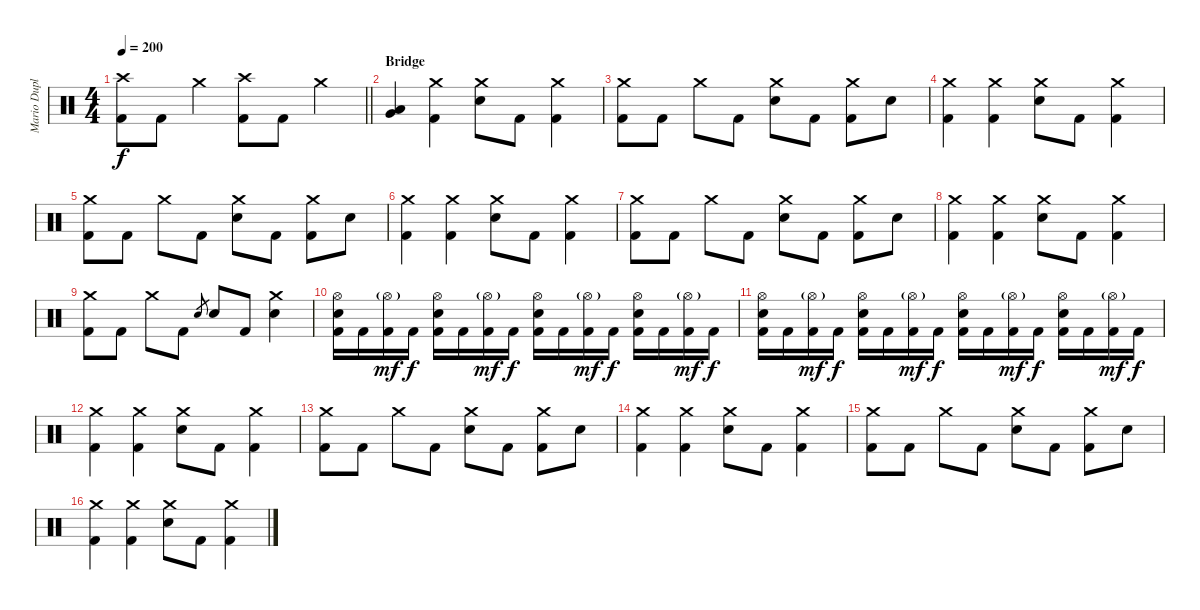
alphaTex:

\track ("Mario Duplantier" "Mario Dupl") {instrument percussion}
\staff {score}
\articulation defaults
\ts (4 4)
\tempo 200
\clef neutral
\barLineRight lightlight
\ks c
("Crash high (hit)" "Kick (hit) 2").8{dy f} "Kick (hit) 2".8 "Crash medium (hit)".4 ("Crash high (hit)" "Kick (hit) 2").8 "Kick (hit) 2".8 "Crash medium (hit)".4 |
\section ("" "Bridge")
("Low Floor Tom (hit)" "Very Low Tom (hit)").4 ("Crash medium (hit)" "Kick (hit) 2").4 ("Crash medium (hit)" "Electric Snare (hit)").8 "Kick (hit) 2".8 ("Crash medium (hit)" "Kick (hit) 2").4 |
("Crash medium (hit)" "Kick (hit) 2").8 "Kick (hit) 2".8 "Crash medium (hit)".8 "Kick (hit) 2".8 ("Crash medium (hit)" "Electric Snare (hit)").8 "Kick (hit) 2".8 ("Crash medium (hit)" "Kick (hit) 2").8 "Electric Snare (hit)".8 |
("Crash medium (hit)" "Kick (hit) 2").4 ("Crash medium (hit)" "Kick (hit) 2").4 ("Crash medium (hit)" "Electric Snare (hit)").8 "Kick (hit) 2".8 ("Crash medium (hit)" "Kick (hit) 2").4 |
("Crash medium (hit)" "Kick (hit) 2").8 "Kick (hit) 2".8 "Crash medium (hit)".8 "Kick (hit) 2".8 ("Crash medium (hit)" "Electric Snare (hit)").8 "Kick (hit) 2".8 ("Crash medium (hit)" "Kick (hit) 2").8 "Electric Snare (hit)".8 |
("Crash medium (hit)" "Kick (hit) 2").4 ("Crash medium (hit)" "Kick (hit) 2").4 ("Crash medium (hit)" "Electric Snare (hit)").8 "Kick (hit) 2".8 ("Crash medium (hit)" "Kick (hit) 2").4 |
("Crash medium (hit)" "Kick (hit) 2").8 "Kick (hit) 2".8 "Crash medium (hit)".8 "Kick (hit) 2".8 ("Crash medium (hit)" "Electric Snare (hit)").8 "Kick (hit) 2".8 ("Crash medium (hit)" "Kick (hit) 2").8 "Electric Snare (hit)".8 |
("Crash medium (hit)" "Kick (hit) 2").4 ("Crash medium (hit)" "Kick (hit) 2").4 ("Crash medium (hit)" "Electric Snare (hit)").8 "Kick (hit) 2".8 ("Crash medium (hit)" "Kick (hit) 2").4 |
("Crash medium (hit)" "Kick (hit) 2").8 "Kick (hit) 2".8 "Crash medium (hit)".8 "Kick (hit) 2".8 "Electric Snare (hit)".8{gr} "Electric Snare (hit)".8 "Kick (hit) 2".8 ("Crash medium (hit)" "Electric Snare (hit)").4 |
("Hi-Hat (open)" "Electric Snare (hit)" "Kick (hit) 2").16 "Kick (hit) 2".16 ("Hi-Hat (open)"{g} "Kick (hit) 2").16{dy mf} "Kick (hit) 2".16{dy f} ("Hi-Hat (open)" "Electric Snare (hit)" "Kick (hit) 2").16 "Kick (hit) 2".16 ("Hi-Hat (open)"{g} "Kick (hit) 2").16{dy mf} "Kick (hit) 2".16{dy f} ("Hi-Hat (open)" "Electric Snare (hit)" "Kick (hit) 2").16 "Kick (hit) 2".16 ("Hi-Hat (open)"{g} "Kick (hit) 2").16{dy mf} "Kick (hit) 2".16{dy f} ("Hi-Hat (open)" "Electric Snare (hit)" "Kick (hit) 2").16 "Kick (hit) 2".16 ("Hi-Hat (open)"{g} "Kick (hit) 2").16{dy mf} "Kick (hit) 2".16{dy f} |
("Hi-Hat (open)" "Electric Snare (hit)" "Kick (hit) 2").16 "Kick (hit) 2".16 ("Hi-Hat (open)"{g} "Kick (hit) 2").16{dy mf} "Kick (hit) 2".16{dy f} ("Hi-Hat (open)" "Electric Snare (hit)" "Kick (hit) 2").16 "Kick (hit) 2".16 ("Hi-Hat (open)"{g} "Kick (hit) 2").16{dy mf} "Kick (hit) 2".16{dy f} ("Hi-Hat (open)" "Electric Snare (hit)" "Kick (hit) 2").16 "Kick (hit) 2".16 ("Hi-Hat (open)"{g} "Kick (hit) 2").16{dy mf} "Kick (hit) 2".16{dy f} ("Hi-Hat (open)" "Electric Snare (hit)" "Kick (hit) 2").16 "Kick (hit) 2".16 ("Hi-Hat (open)"{g} "Kick (hit) 2").16{dy mf} "Kick (hit) 2".16{dy f} |
("Crash medium (hit)" "Kick (hit) 2").4 ("Crash medium (hit)" "Kick (hit) 2").4 ("Crash medium (hit)" "Electric Snare (hit)").8 "Kick (hit) 2".8 ("Crash medium (hit)" "Kick (hit) 2").4 |
("Crash medium (hit)" "Kick (hit) 2").8 "Kick (hit) 2".8 "Crash medium (hit)".8 "Kick (hit) 2".8 ("Crash medium (hit)" "Electric Snare (hit)").8 "Kick (hit) 2".8 ("Crash medium (hit)" "Kick (hit) 2").8 "Electric Snare (hit)".8 |
("Crash medium (hit)" "Kick (hit) 2").4 ("Crash medium (hit)" "Kick (hit) 2").4 ("Crash medium (hit)" "Electric Snare (hit)").8 "Kick (hit) 2".8 ("Crash medium (hit)" "Kick (hit) 2").4 |
("Crash medium (hit)" "Kick (hit) 2").8 "Kick (hit) 2".8 "Crash medium (hit)".8 "Kick (hit) 2".8 ("Crash medium (hit)" "Electric Snare (hit)").8 "Kick (hit) 2".8 ("Crash medium (hit)" "Kick (hit) 2").8 "Electric Snare (hit)".8 |
("Crash medium (hit)" "Kick (hit) 2").4 ("Crash medium (hit)" "Kick (hit) 2").4 ("Crash medium (hit)" "Electric Snare (hit)").8 "Kick (hit) 2".8 ("Crash medium (hit)" "Kick (hit) 2").4
